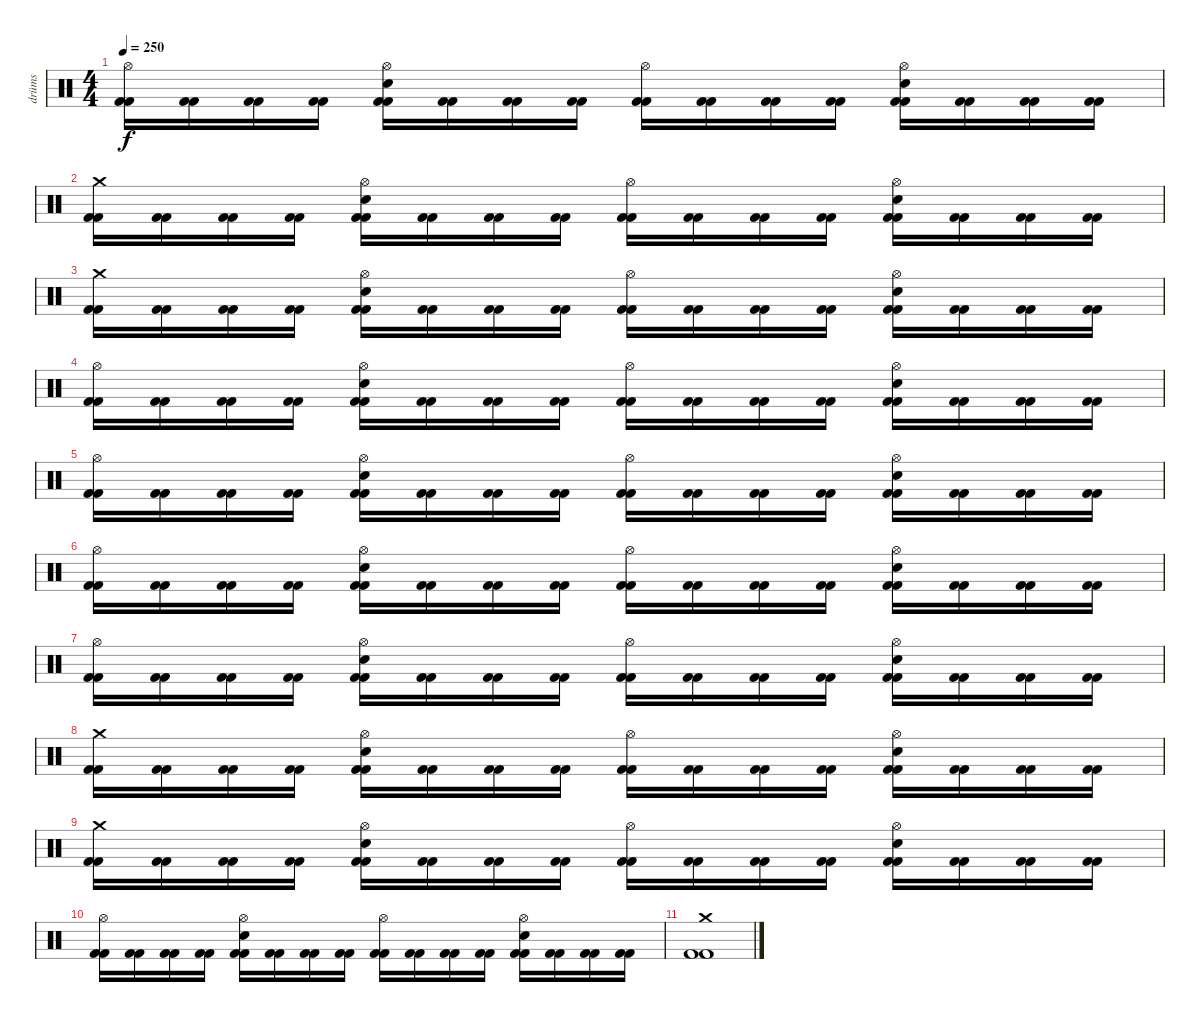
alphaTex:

\track ("drüms" "drüms") {instrument percussion}
\staff {score}
\articulation defaults
\ts (4 4)
\tempo 250
\clef neutral
\ks c
("Hi-Hat (open)" "Kick (hit) 2" "Kick (hit) 2").16{dy f} ("Kick (hit) 2" "Kick (hit) 2").16 ("Kick (hit) 2" "Kick (hit) 2").16 ("Kick (hit) 2" "Kick (hit) 2").16 ("Hi-Hat (open)" "Snare (hit) 2" "Kick (hit) 2" "Kick (hit) 2").16 ("Kick (hit) 2" "Kick (hit) 2").16 ("Kick (hit) 2" "Kick (hit) 2").16 ("Kick (hit) 2" "Kick (hit) 2").16 ("Hi-Hat (open)" "Kick (hit) 2" "Kick (hit) 2").16 ("Kick (hit) 2" "Kick (hit) 2").16 ("Kick (hit) 2" "Kick (hit) 2").16 ("Kick (hit) 2" "Kick (hit) 2").16 ("Hi-Hat (open)" "Snare (hit) 2" "Kick (hit) 2" "Kick (hit) 2").16 ("Kick (hit) 2" "Kick (hit) 2").16 ("Kick (hit) 2" "Kick (hit) 2").16 ("Kick (hit) 2" "Kick (hit) 2").16 |
("Crash medium (hit)" "Kick (hit) 2" "Kick (hit) 2").16 ("Kick (hit) 2" "Kick (hit) 2").16 ("Kick (hit) 2" "Kick (hit) 2").16 ("Kick (hit) 2" "Kick (hit) 2").16 ("Hi-Hat (open)" "Snare (hit) 2" "Kick (hit) 2" "Kick (hit) 2").16 ("Kick (hit) 2" "Kick (hit) 2").16 ("Kick (hit) 2" "Kick (hit) 2").16 ("Kick (hit) 2" "Kick (hit) 2").16 ("Hi-Hat (open)" "Kick (hit) 2" "Kick (hit) 2").16 ("Kick (hit) 2" "Kick (hit) 2").16 ("Kick (hit) 2" "Kick (hit) 2").16 ("Kick (hit) 2" "Kick (hit) 2").16 ("Hi-Hat (open)" "Snare (hit) 2" "Kick (hit) 2" "Kick (hit) 2").16 ("Kick (hit) 2" "Kick (hit) 2").16 ("Kick (hit) 2" "Kick (hit) 2").16 ("Kick (hit) 2" "Kick (hit) 2").16 |
("Crash medium (hit)" "Kick (hit) 2" "Kick (hit) 2").16 ("Kick (hit) 2" "Kick (hit) 2").16 ("Kick (hit) 2" "Kick (hit) 2").16 ("Kick (hit) 2" "Kick (hit) 2").16 ("Hi-Hat (open)" "Snare (hit) 2" "Kick (hit) 2" "Kick (hit) 2").16 ("Kick (hit) 2" "Kick (hit) 2").16 ("Kick (hit) 2" "Kick (hit) 2").16 ("Kick (hit) 2" "Kick (hit) 2").16 ("Hi-Hat (open)" "Kick (hit) 2" "Kick (hit) 2").16 ("Kick (hit) 2" "Kick (hit) 2").16 ("Kick (hit) 2" "Kick (hit) 2").16 ("Kick (hit) 2" "Kick (hit) 2").16 ("Hi-Hat (open)" "Snare (hit) 2" "Kick (hit) 2" "Kick (hit) 2").16 ("Kick (hit) 2" "Kick (hit) 2").16 ("Kick (hit) 2" "Kick (hit) 2").16 ("Kick (hit) 2" "Kick (hit) 2").16 |
("Hi-Hat (open)" "Kick (hit) 2" "Kick (hit) 2").16 ("Kick (hit) 2" "Kick (hit) 2").16 ("Kick (hit) 2" "Kick (hit) 2").16 ("Kick (hit) 2" "Kick (hit) 2").16 ("Hi-Hat (open)" "Snare (hit) 2" "Kick (hit) 2" "Kick (hit) 2").16 ("Kick (hit) 2" "Kick (hit) 2").16 ("Kick (hit) 2" "Kick (hit) 2").16 ("Kick (hit) 2" "Kick (hit) 2").16 ("Hi-Hat (open)" "Kick (hit) 2" "Kick (hit) 2").16 ("Kick (hit) 2" "Kick (hit) 2").16 ("Kick (hit) 2" "Kick (hit) 2").16 ("Kick (hit) 2" "Kick (hit) 2").16 ("Hi-Hat (open)" "Snare (hit) 2" "Kick (hit) 2" "Kick (hit) 2").16 ("Kick (hit) 2" "Kick (hit) 2").16 ("Kick (hit) 2" "Kick (hit) 2").16 ("Kick (hit) 2" "Kick (hit) 2").16 |
("Hi-Hat (open)" "Kick (hit) 2" "Kick (hit) 2").16 ("Kick (hit) 2" "Kick (hit) 2").16 ("Kick (hit) 2" "Kick (hit) 2").16 ("Kick (hit) 2" "Kick (hit) 2").16 ("Hi-Hat (open)" "Snare (hit) 2" "Kick (hit) 2" "Kick (hit) 2").16 ("Kick (hit) 2" "Kick (hit) 2").16 ("Kick (hit) 2" "Kick (hit) 2").16 ("Kick (hit) 2" "Kick (hit) 2").16 ("Hi-Hat (open)" "Kick (hit) 2" "Kick (hit) 2").16 ("Kick (hit) 2" "Kick (hit) 2").16 ("Kick (hit) 2" "Kick (hit) 2").16 ("Kick (hit) 2" "Kick (hit) 2").16 ("Hi-Hat (open)" "Snare (hit) 2" "Kick (hit) 2" "Kick (hit) 2").16 ("Kick (hit) 2" "Kick (hit) 2").16 ("Kick (hit) 2" "Kick (hit) 2").16 ("Kick (hit) 2" "Kick (hit) 2").16 |
("Hi-Hat (open)" "Kick (hit) 2" "Kick (hit) 2").16 ("Kick (hit) 2" "Kick (hit) 2").16 ("Kick (hit) 2" "Kick (hit) 2").16 ("Kick (hit) 2" "Kick (hit) 2").16 ("Hi-Hat (open)" "Snare (hit) 2" "Kick (hit) 2" "Kick (hit) 2").16 ("Kick (hit) 2" "Kick (hit) 2").16 ("Kick (hit) 2" "Kick (hit) 2").16 ("Kick (hit) 2" "Kick (hit) 2").16 ("Hi-Hat (open)" "Kick (hit) 2" "Kick (hit) 2").16 ("Kick (hit) 2" "Kick (hit) 2").16 ("Kick (hit) 2" "Kick (hit) 2").16 ("Kick (hit) 2" "Kick (hit) 2").16 ("Hi-Hat (open)" "Snare (hit) 2" "Kick (hit) 2" "Kick (hit) 2").16 ("Kick (hit) 2" "Kick (hit) 2").16 ("Kick (hit) 2" "Kick (hit) 2").16 ("Kick (hit) 2" "Kick (hit) 2").16 |
("Hi-Hat (open)" "Kick (hit) 2" "Kick (hit) 2").16 ("Kick (hit) 2" "Kick (hit) 2").16 ("Kick (hit) 2" "Kick (hit) 2").16 ("Kick (hit) 2" "Kick (hit) 2").16 ("Hi-Hat (open)" "Snare (hit) 2" "Kick (hit) 2" "Kick (hit) 2").16 ("Kick (hit) 2" "Kick (hit) 2").16 ("Kick (hit) 2" "Kick (hit) 2").16 ("Kick (hit) 2" "Kick (hit) 2").16 ("Hi-Hat (open)" "Kick (hit) 2" "Kick (hit) 2").16 ("Kick (hit) 2" "Kick (hit) 2").16 ("Kick (hit) 2" "Kick (hit) 2").16 ("Kick (hit) 2" "Kick (hit) 2").16 ("Hi-Hat (open)" "Snare (hit) 2" "Kick (hit) 2" "Kick (hit) 2").16 ("Kick (hit) 2" "Kick (hit) 2").16 ("Kick (hit) 2" "Kick (hit) 2").16 ("Kick (hit) 2" "Kick (hit) 2").16 |
("Crash medium (hit)" "Kick (hit) 2" "Kick (hit) 2").16 ("Kick (hit) 2" "Kick (hit) 2").16 ("Kick (hit) 2" "Kick (hit) 2").16 ("Kick (hit) 2" "Kick (hit) 2").16 ("Hi-Hat (open)" "Snare (hit) 2" "Kick (hit) 2" "Kick (hit) 2").16 ("Kick (hit) 2" "Kick (hit) 2").16 ("Kick (hit) 2" "Kick (hit) 2").16 ("Kick (hit) 2" "Kick (hit) 2").16 ("Hi-Hat (open)" "Kick (hit) 2" "Kick (hit) 2").16 ("Kick (hit) 2" "Kick (hit) 2").16 ("Kick (hit) 2" "Kick (hit) 2").16 ("Kick (hit) 2" "Kick (hit) 2").16 ("Hi-Hat (open)" "Snare (hit) 2" "Kick (hit) 2" "Kick (hit) 2").16 ("Kick (hit) 2" "Kick (hit) 2").16 ("Kick (hit) 2" "Kick (hit) 2").16 ("Kick (hit) 2" "Kick (hit) 2").16 |
("Crash medium (hit)" "Kick (hit) 2" "Kick (hit) 2").16 ("Kick (hit) 2" "Kick (hit) 2").16 ("Kick (hit) 2" "Kick (hit) 2").16 ("Kick (hit) 2" "Kick (hit) 2").16 ("Hi-Hat (open)" "Snare (hit) 2" "Kick (hit) 2" "Kick (hit) 2").16 ("Kick (hit) 2" "Kick (hit) 2").16 ("Kick (hit) 2" "Kick (hit) 2").16 ("Kick (hit) 2" "Kick (hit) 2").16 ("Hi-Hat (open)" "Kick (hit) 2" "Kick (hit) 2").16 ("Kick (hit) 2" "Kick (hit) 2").16 ("Kick (hit) 2" "Kick (hit) 2").16 ("Kick (hit) 2" "Kick (hit) 2").16 ("Hi-Hat (open)" "Snare (hit) 2" "Kick (hit) 2" "Kick (hit) 2").16 ("Kick (hit) 2" "Kick (hit) 2").16 ("Kick (hit) 2" "Kick (hit) 2").16 ("Kick (hit) 2" "Kick (hit) 2").16 |
("Hi-Hat (open)" "Kick (hit) 2" "Kick (hit) 2").16 ("Kick (hit) 2" "Kick (hit) 2").16 ("Kick (hit) 2" "Kick (hit) 2").16 ("Kick (hit) 2" "Kick (hit) 2").16 ("Hi-Hat (open)" "Snare (hit) 2" "Kick (hit) 2" "Kick (hit) 2").16 ("Kick (hit) 2" "Kick (hit) 2").16 ("Kick (hit) 2" "Kick (hit) 2").16 ("Kick (hit) 2" "Kick (hit) 2").16 ("Hi-Hat (open)" "Kick (hit) 2" "Kick (hit) 2").16 ("Kick (hit) 2" "Kick (hit) 2").16 ("Kick (hit) 2" "Kick (hit) 2").16 ("Kick (hit) 2" "Kick (hit) 2").16 ("Hi-Hat (open)" "Snare (hit) 2" "Kick (hit) 2" "Kick (hit) 2").16 ("Kick (hit) 2" "Kick (hit) 2").16 ("Kick (hit) 2" "Kick (hit) 2").16 ("Kick (hit) 2" "Kick (hit) 2").16 |
("Crash medium (hit)" "Kick (hit) 2" "Kick (hit) 2").1
